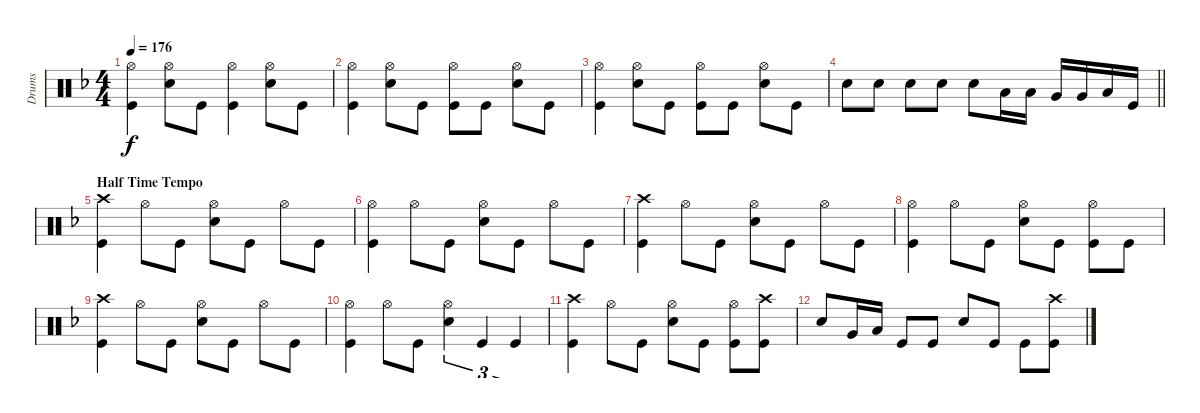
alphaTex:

\track ("Drums" "Drums") {instrument percussion}
\staff {score}
\articulation defaults
\ts (4 4)
\tempo 176
\clef neutral
\ks f
("Hi-Hat (open)" "Kick (hit)").4{dy f} ("Hi-Hat (open)" "Snare (hit) 2").8 "Kick (hit)".8 ("Hi-Hat (open)" "Kick (hit)").4 ("Hi-Hat (open)" "Snare (hit) 2").8 "Kick (hit)".8 |
("Hi-Hat (open)" "Kick (hit)").4 ("Hi-Hat (open)" "Snare (hit) 2").8 "Kick (hit)".8 ("Hi-Hat (open)" "Kick (hit)").8 "Kick (hit)".8 ("Hi-Hat (open)" "Snare (hit) 2").8 "Kick (hit)".8 |
("Hi-Hat (open)" "Kick (hit)").4 ("Hi-Hat (open)" "Snare (hit) 2").8 "Kick (hit)".8 ("Hi-Hat (open)" "Kick (hit)").8 "Kick (hit)".8 ("Hi-Hat (open)" "Snare (hit) 2").8 "Kick (hit)".8 |
\barLineRight lightlight "Snare (hit) 2".8 "Snare (hit) 2".8 "Snare (hit) 2".8 "Snare (hit) 2".8 "Snare (hit) 2".8 "Low Tom (hit)".16 "Low Tom (hit)".16 "Very Low Tom (hit)".16 "Very Low Tom (hit)".16 "Low Floor Tom (hit)".16 "Kick (hit)".16
|
\section ("" "Half Time Tempo")
("Crash high (hit)" "Kick (hit)").4 "Hi-Hat (open)".8 "Kick (hit)".8 ("Hi-Hat (open)" "Snare (hit) 2").8 "Kick (hit)".8 "Hi-Hat (open)".8 "Kick (hit)".8 |
("Hi-Hat (open)" "Kick (hit)").4 "Hi-Hat (open)".8 "Kick (hit)".8 ("Hi-Hat (open)" "Snare (hit) 2").8 "Kick (hit)".8 "Hi-Hat (open)".8 "Kick (hit)".8 |
("Crash high (hit)" "Kick (hit)").4 "Hi-Hat (open)".8 "Kick (hit)".8 ("Hi-Hat (open)" "Snare (hit) 2").8 "Kick (hit)".8 "Hi-Hat (open)".8 "Kick (hit)".8 |
("Hi-Hat (open)" "Kick (hit)").4 "Hi-Hat (open)".8 "Kick (hit)".8 ("Hi-Hat (open)" "Snare (hit) 2").8 "Kick (hit)".8 ("Hi-Hat (open)" "Kick (hit)").8 "Kick (hit)".8 |
("Crash high (hit)" "Kick (hit)").4 "Hi-Hat (open)".8 "Kick (hit)".8 ("Hi-Hat (open)" "Snare (hit) 2").8 "Kick (hit)".8 "Hi-Hat (open)".8 "Kick (hit)".8 |
("Hi-Hat (open)" "Kick (hit)").4 "Hi-Hat (open)".8 "Kick (hit)".8 ("Hi-Hat (open)" "Snare (hit) 2").4{tu (3 2)} "Kick (hit)".4{tu (3 2)} "Kick (hit)".4{tu (3 2)} |
("Crash high (hit)" "Kick (hit)").4 "Hi-Hat (open)".8 "Kick (hit)".8 ("Hi-Hat (open)" "Snare (hit) 2").8 "Kick (hit)".8 ("Hi-Hat (open)" "Kick (hit)").8 ("Crash high (hit)" "Kick (hit)").8 |
"Snare (hit) 2".8 "Very Low Tom (hit)".16 "Low Floor Tom (hit)".16 "Kick (hit)".8 "Kick (hit)".8 "Snare (hit) 2".8 "Kick (hit)".8 "Kick (hit)".8 ("Crash high (hit)" "Kick (hit)").8
